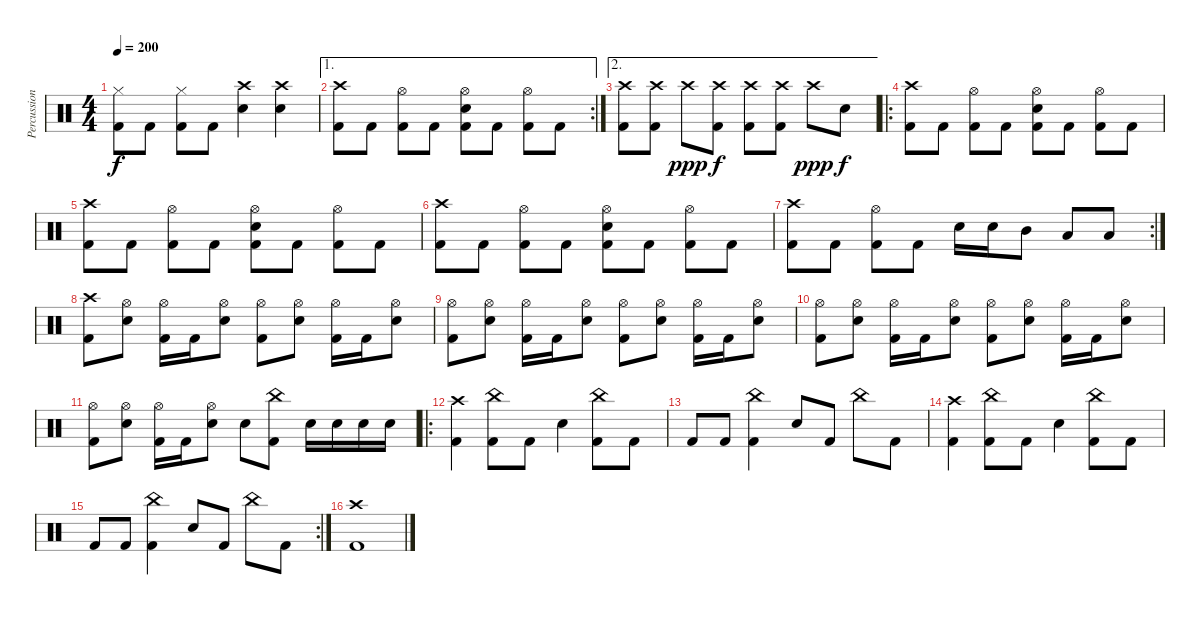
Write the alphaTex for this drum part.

\track ("Percussions" "Percussion") {instrument percussion}
\staff {score}
\articulation defaults
\ts (4 4)
\tempo 200
\clef neutral
\ks c
("Hi-Hat (closed)" "Kick (hit) 2").8{dy f} "Kick (hit) 2".8 ("Hi-Hat (closed)" "Kick (hit) 2").8 "Kick (hit) 2".8 ("Crash high (hit)" "Snare (hit) 2").4 ("Crash high (hit)" "Snare (hit) 2").4 |
\ae 1
\rc 2
("Crash high (hit)" "Kick (hit) 2").8 "Kick (hit) 2".8 ("Hi-Hat (open)" "Kick (hit) 2").8 "Kick (hit) 2".8 ("Hi-Hat (open)" "Snare (hit) 2" "Kick (hit) 2").8 "Kick (hit) 2".8 ("Hi-Hat (open)" "Kick (hit) 2").8 "Kick (hit) 2".8 |
\ae 2
("Crash high (hit)" "Kick (hit) 2").8 ("Crash high (hit)" "Kick (hit) 2").8 "Crash high (hit)".8{dy ppp} ("Crash high (hit)" "Kick (hit) 2").8{dy f} ("Crash high (hit)" "Kick (hit) 2").8 ("Crash high (hit)" "Kick (hit) 2").8 "Crash high (hit)".8{dy ppp} "Snare (hit) 2".8{dy f} |
\ro
("Crash high (hit)" "Kick (hit) 2").8 "Kick (hit) 2".8 ("Hi-Hat (open)" "Kick (hit) 2").8 "Kick (hit) 2".8 ("Hi-Hat (open)" "Snare (hit) 2" "Kick (hit) 2").8 "Kick (hit) 2".8 ("Hi-Hat (open)" "Kick (hit) 2").8 "Kick (hit) 2".8 |
("Crash high (hit)" "Kick (hit) 2").8 "Kick (hit) 2".8 ("Hi-Hat (open)" "Kick (hit) 2").8 "Kick (hit) 2".8 ("Hi-Hat (open)" "Snare (hit) 2" "Kick (hit) 2").8 "Kick (hit) 2".8 ("Hi-Hat (open)" "Kick (hit) 2").8 "Kick (hit) 2".8 |
("Crash high (hit)" "Kick (hit) 2").8 "Kick (hit) 2".8 ("Hi-Hat (open)" "Kick (hit) 2").8 "Kick (hit) 2".8 ("Hi-Hat (open)" "Snare (hit) 2" "Kick (hit) 2").8 "Kick (hit) 2".8 ("Hi-Hat (open)" "Kick (hit) 2").8 "Kick (hit) 2".8 |
\rc 2
("Crash high (hit)" "Kick (hit) 2").8 "Kick (hit) 2".8 ("Hi-Hat (open)" "Kick (hit) 2").8 "Kick (hit) 2".8 "Snare (hit) 2".16 "Snare (hit) 2".16 "Mid Tom (hit)".8 "Low Tom (hit)".8 "Low Floor Tom (hit)".8 |
("Crash high (hit)" "Kick (hit) 2").8 ("Hi-Hat (open)" "Snare (hit) 2").8 ("Hi-Hat (open)" "Kick (hit) 2").16 "Kick (hit) 2".16 ("Hi-Hat (open)" "Snare (hit) 2").8 ("Hi-Hat (open)" "Kick (hit) 2").8 ("Hi-Hat (open)" "Snare (hit) 2").8 ("Hi-Hat (open)" "Kick (hit) 2").16 "Kick (hit) 2".16 ("Hi-Hat (open)" "Snare (hit) 2").8 |
("Hi-Hat (open)" "Kick (hit) 2").8 ("Hi-Hat (open)" "Snare (hit) 2").8 ("Hi-Hat (open)" "Kick (hit) 2").16 "Kick (hit) 2".16 ("Hi-Hat (open)" "Snare (hit) 2").8 ("Hi-Hat (open)" "Kick (hit) 2").8 ("Hi-Hat (open)" "Snare (hit) 2").8 ("Hi-Hat (open)" "Kick (hit) 2").16 "Kick (hit) 2".16 ("Hi-Hat (open)" "Snare (hit) 2").8 |
("Hi-Hat (open)" "Kick (hit) 2").8 ("Hi-Hat (open)" "Snare (hit) 2").8 ("Hi-Hat (open)" "Kick (hit) 2").16 "Kick (hit) 2".16 ("Hi-Hat (open)" "Snare (hit) 2").8 ("Hi-Hat (open)" "Kick (hit) 2").8 ("Hi-Hat (open)" "Snare (hit) 2").8 ("Hi-Hat (open)" "Kick (hit) 2").16 "Kick (hit) 2".16 ("Hi-Hat (open)" "Snare (hit) 2").8 |
("Hi-Hat (open)" "Kick (hit) 2").8 ("Hi-Hat (open)" "Snare (hit) 2").8 ("Hi-Hat (open)" "Kick (hit) 2").16 "Kick (hit) 2".16 ("Hi-Hat (open)" "Snare (hit) 2").8 "Snare (hit) 2".8 ("China (hit)" "Kick (hit) 2").8 "Snare (hit) 2".16 "Snare (hit) 2".16 "Snare (hit) 2".16 "Snare (hit) 2".16 |
\ro
("Crash high (hit)" "Kick (hit) 2").4 ("China (hit)" "Kick (hit) 2").8 "Kick (hit) 2".8 "Snare (hit) 2".4 ("China (hit)" "Kick (hit) 2").8 "Kick (hit) 2".8 |
"Kick (hit) 2".8 "Kick (hit) 2".8 ("China (hit)" "Kick (hit) 2").4 "Snare (hit) 2".8 "Kick (hit) 2".8 "China (hit)".8 "Kick (hit) 2".8 |
("Crash high (hit)" "Kick (hit) 2").4 ("China (hit)" "Kick (hit) 2").8 "Kick (hit) 2".8 "Snare (hit) 2".4 ("China (hit)" "Kick (hit) 2").8 "Kick (hit) 2".8 |
\rc 2 "Kick (hit) 2".8 "Kick (hit) 2".8
("China (hit)" "Kick (hit) 2").4 "Snare (hit) 2".8 "Kick (hit) 2".8 "China (hit)".8 "Kick (hit) 2".8 |
("Crash high (hit)" "Kick (hit) 2").1
